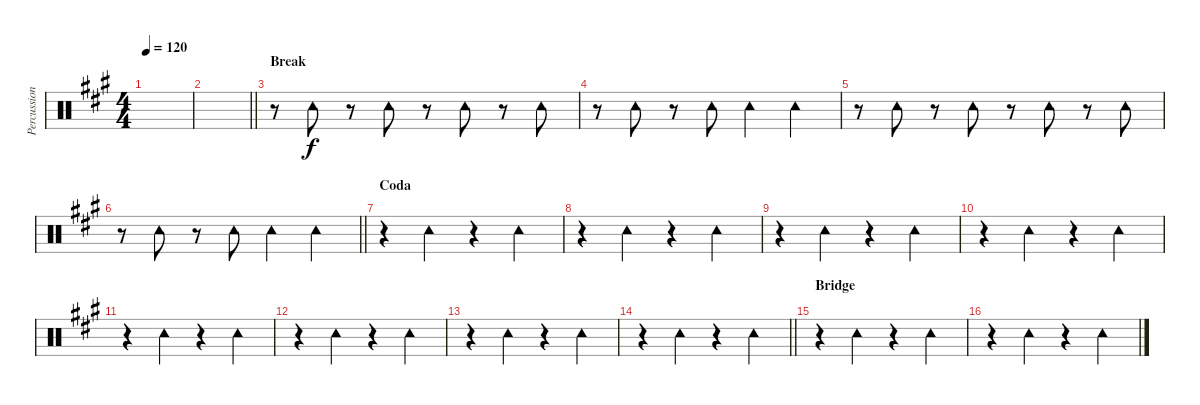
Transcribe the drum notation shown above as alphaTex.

\track ("Percussion" "Percussion") {instrument percussion}
\staff {score}
\articulation defaults
\ts (4 4)
\tempo 120
\clef neutral
\ks a
|
\barLineRight lightlight
|
\section ("" "Break")
r.8 "Tambourine (hit)".8 r.8 "Tambourine (hit)".8 r.8 "Tambourine (hit)".8 r.8 "Tambourine (hit)".8 |
r.8 "Tambourine (hit)".8 r.8 "Tambourine (hit)".8 "Tambourine (hit)".4 "Tambourine (hit)".4 |
r.8 "Tambourine (hit)".8 r.8 "Tambourine (hit)".8 r.8 "Tambourine (hit)".8 r.8 "Tambourine (hit)".8 |
\barLineRight lightlight
r.8 "Tambourine (hit)".8 r.8 "Tambourine (hit)".8 "Tambourine (hit)".4 "Tambourine (hit)".4 |
\section ("" "Coda")
r.4 "Tambourine (hit)".4 r.4 "Tambourine (hit)".4 |
r.4 "Tambourine (hit)".4 r.4 "Tambourine (hit)".4 |
r.4 "Tambourine (hit)".4 r.4 "Tambourine (hit)".4 |
r.4 "Tambourine (hit)".4 r.4 "Tambourine (hit)".4 |
r.4 "Tambourine (hit)".4 r.4 "Tambourine (hit)".4 |
r.4 "Tambourine (hit)".4 r.4 "Tambourine (hit)".4 |
r.4 "Tambourine (hit)".4 r.4 "Tambourine (hit)".4 |
\barLineRight lightlight
r.4 "Tambourine (hit)".4 r.4 "Tambourine (hit)".4 |
\section ("" "Bridge")
r.4 "Tambourine (hit)".4 r.4 "Tambourine (hit)".4 |
r.4 "Tambourine (hit)".4 r.4 "Tambourine (hit)".4
